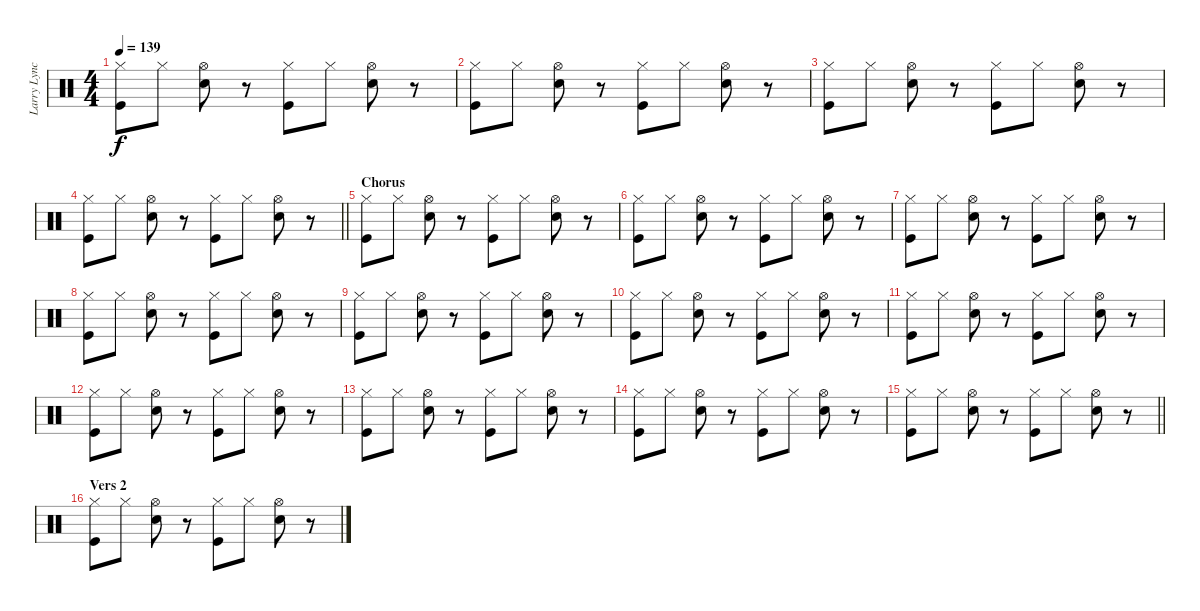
\track ("Larry Lynch" "Larry Lync") {instrument percussion}
\staff {score}
\articulation defaults
\ts (4 4)
\tempo 139
\clef neutral
\ks c
("Hi-Hat (closed)" "Kick (hit)").8{dy f} "Hi-Hat (closed)".8 ("Hi-Hat (open)" "Electric Snare (hit)").8 r.8 ("Hi-Hat (closed)" "Kick (hit)").8 "Hi-Hat (closed)".8 ("Hi-Hat (open)" "Electric Snare (hit)").8 r.8 |
("Hi-Hat (closed)" "Kick (hit)").8 "Hi-Hat (closed)".8 ("Hi-Hat (open)" "Electric Snare (hit)").8 r.8 ("Hi-Hat (closed)" "Kick (hit)").8 "Hi-Hat (closed)".8 ("Hi-Hat (open)" "Electric Snare (hit)").8 r.8 |
("Hi-Hat (closed)" "Kick (hit)").8 "Hi-Hat (closed)".8 ("Hi-Hat (open)" "Electric Snare (hit)").8 r.8 ("Hi-Hat (closed)" "Kick (hit)").8 "Hi-Hat (closed)".8 ("Hi-Hat (open)" "Electric Snare (hit)").8 r.8 |
\barLineRight lightlight
("Hi-Hat (closed)" "Kick (hit)").8 "Hi-Hat (closed)".8 ("Hi-Hat (open)" "Electric Snare (hit)").8 r.8 ("Hi-Hat (closed)" "Kick (hit)").8 "Hi-Hat (closed)".8 ("Hi-Hat (open)" "Electric Snare (hit)").8 r.8 |
\section ("" "Chorus")
("Hi-Hat (closed)" "Kick (hit)").8 "Hi-Hat (closed)".8 ("Hi-Hat (open)" "Electric Snare (hit)").8 r.8 ("Hi-Hat (closed)" "Kick (hit)").8 "Hi-Hat (closed)".8 ("Hi-Hat (open)" "Electric Snare (hit)").8 r.8 |
("Hi-Hat (closed)" "Kick (hit)").8 "Hi-Hat (closed)".8 ("Hi-Hat (open)" "Electric Snare (hit)").8 r.8 ("Hi-Hat (closed)" "Kick (hit)").8 "Hi-Hat (closed)".8 ("Hi-Hat (open)" "Electric Snare (hit)").8 r.8 |
("Hi-Hat (closed)" "Kick (hit)").8 "Hi-Hat (closed)".8 ("Hi-Hat (open)" "Electric Snare (hit)").8 r.8 ("Hi-Hat (closed)" "Kick (hit)").8 "Hi-Hat (closed)".8 ("Hi-Hat (open)" "Electric Snare (hit)").8 r.8 |
("Hi-Hat (closed)" "Kick (hit)").8 "Hi-Hat (closed)".8 ("Hi-Hat (open)" "Electric Snare (hit)").8 r.8 ("Hi-Hat (closed)" "Kick (hit)").8 "Hi-Hat (closed)".8 ("Hi-Hat (open)" "Electric Snare (hit)").8 r.8 |
("Hi-Hat (closed)" "Kick (hit)").8 "Hi-Hat (closed)".8 ("Hi-Hat (open)" "Electric Snare (hit)").8 r.8 ("Hi-Hat (closed)" "Kick (hit)").8 "Hi-Hat (closed)".8 ("Hi-Hat (open)" "Electric Snare (hit)").8 r.8 |
("Hi-Hat (closed)" "Kick (hit)").8 "Hi-Hat (closed)".8 ("Hi-Hat (open)" "Electric Snare (hit)").8 r.8 ("Hi-Hat (closed)" "Kick (hit)").8 "Hi-Hat (closed)".8 ("Hi-Hat (open)" "Electric Snare (hit)").8 r.8 |
("Hi-Hat (closed)" "Kick (hit)").8 "Hi-Hat (closed)".8 ("Hi-Hat (open)" "Electric Snare (hit)").8 r.8 ("Hi-Hat (closed)" "Kick (hit)").8 "Hi-Hat (closed)".8 ("Hi-Hat (open)" "Electric Snare (hit)").8 r.8 |
("Hi-Hat (closed)" "Kick (hit)").8 "Hi-Hat (closed)".8 ("Hi-Hat (open)" "Electric Snare (hit)").8 r.8 ("Hi-Hat (closed)" "Kick (hit)").8 "Hi-Hat (closed)".8 ("Hi-Hat (open)" "Electric Snare (hit)").8 r.8 |
("Hi-Hat (closed)" "Kick (hit)").8 "Hi-Hat (closed)".8 ("Hi-Hat (open)" "Electric Snare (hit)").8 r.8 ("Hi-Hat (closed)" "Kick (hit)").8 "Hi-Hat (closed)".8 ("Hi-Hat (open)" "Electric Snare (hit)").8 r.8 |
("Hi-Hat (closed)" "Kick (hit)").8 "Hi-Hat (closed)".8 ("Hi-Hat (open)" "Electric Snare (hit)").8 r.8 ("Hi-Hat (closed)" "Kick (hit)").8 "Hi-Hat (closed)".8 ("Hi-Hat (open)" "Electric Snare (hit)").8 r.8 |
\barLineRight lightlight
("Hi-Hat (closed)" "Kick (hit)").8 "Hi-Hat (closed)".8 ("Hi-Hat (open)" "Electric Snare (hit)").8 r.8 ("Hi-Hat (closed)" "Kick (hit)").8 "Hi-Hat (closed)".8 ("Hi-Hat (open)" "Electric Snare (hit)").8 r.8 |
\section ("" "Vers 2")
("Hi-Hat (closed)" "Kick (hit)").8{volume 13} "Hi-Hat (closed)".8 ("Hi-Hat (open)" "Electric Snare (hit)").8 r.8 ("Hi-Hat (closed)" "Kick (hit)").8 "Hi-Hat (closed)".8 ("Hi-Hat (open)" "Electric Snare (hit)").8 r.8
